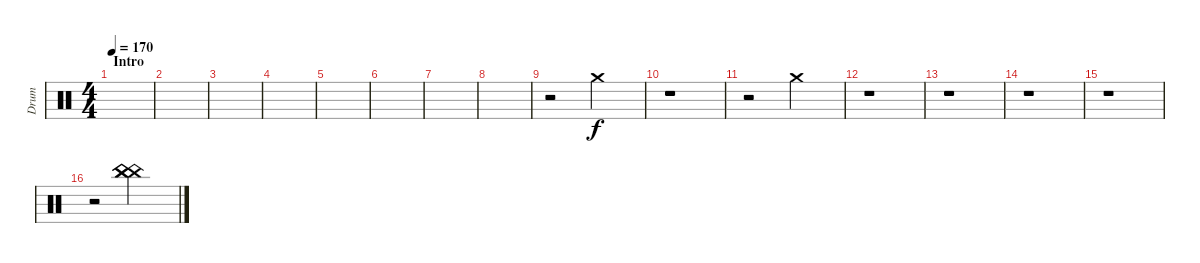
\track ("Drum" "Drum") {instrument percussion}
\staff
\articulation defaults
\ts (4 4)
\section ("" "Intro")
\tempo 170
\clef neutral
\ks c
|
|
|
|
|
|
|
|
r.2 "Crash medium (hit)".2 |
r.1 |
r.2 "Crash medium (hit)".2 |
r.1 |
r.1 |
r.1 |
r.1 |
r.2 ("China (hit)" "China (hit)" "China (hit)").2
